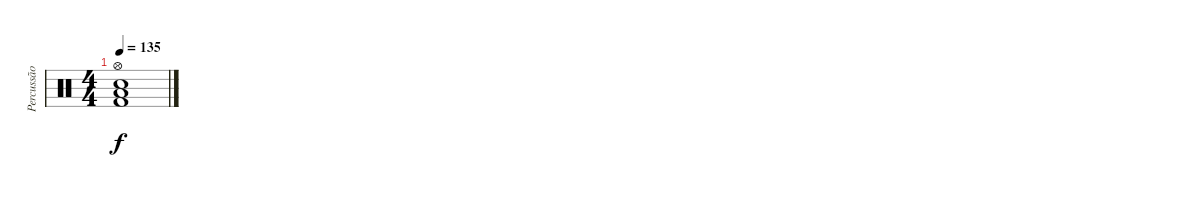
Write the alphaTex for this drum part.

\track ("Percussão" "Percussão") {instrument percussion}
\staff {score}
\articulation defaults
\ts (4 4)
\tempo 135
\clef neutral
\ks c
("Hi-Hat (open)" "Low Floor Tom (hit)" "Snare (hit) 2" "Kick (hit) 2").1{dy f}
